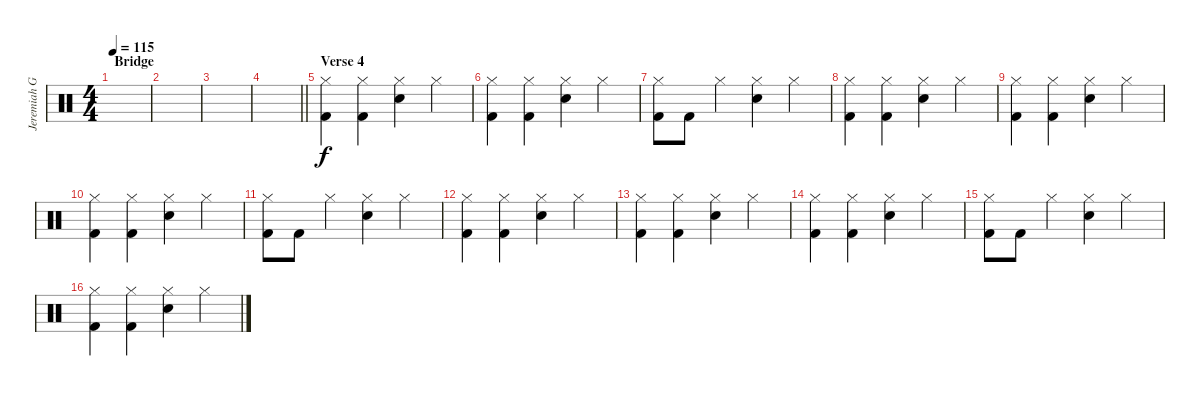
\track ("Jeremiah Green" "Jeremiah G") {instrument percussion}
\staff {score}
\articulation defaults
\ts (4 4)
\section ("" "Bridge")
\tempo 115
\clef neutral
\ks c
|
|
|
\barLineRight lightlight
|
\section ("" "Verse 4")
("Hi-Hat (closed)" "Kick (hit) 2").4{dy f} ("Hi-Hat (closed)" "Kick (hit) 2").4 ("Hi-Hat (closed)" "Electric Snare (hit)").4 "Hi-Hat (closed)".4 |
("Hi-Hat (closed)" "Kick (hit) 2").4 ("Hi-Hat (closed)" "Kick (hit) 2").4 ("Hi-Hat (closed)" "Electric Snare (hit)").4 "Hi-Hat (closed)".4 |
("Hi-Hat (closed)" "Kick (hit) 2").8 "Kick (hit) 2".8 "Hi-Hat (closed)".4 ("Hi-Hat (closed)" "Electric Snare (hit)").4 "Hi-Hat (closed)".4 |
("Hi-Hat (closed)" "Kick (hit) 2").4 ("Hi-Hat (closed)" "Kick (hit) 2").4 ("Hi-Hat (closed)" "Electric Snare (hit)").4 "Hi-Hat (closed)".4 |
("Hi-Hat (closed)" "Kick (hit) 2").4 ("Hi-Hat (closed)" "Kick (hit) 2").4 ("Hi-Hat (closed)" "Electric Snare (hit)").4 "Hi-Hat (closed)".4 |
("Hi-Hat (closed)" "Kick (hit) 2").4 ("Hi-Hat (closed)" "Kick (hit) 2").4 ("Hi-Hat (closed)" "Electric Snare (hit)").4 "Hi-Hat (closed)".4 |
("Hi-Hat (closed)" "Kick (hit) 2").8 "Kick (hit) 2".8 "Hi-Hat (closed)".4 ("Hi-Hat (closed)" "Electric Snare (hit)").4 "Hi-Hat (closed)".4 |
("Hi-Hat (closed)" "Kick (hit) 2").4 ("Hi-Hat (closed)" "Kick (hit) 2").4 ("Hi-Hat (closed)" "Electric Snare (hit)").4 "Hi-Hat (closed)".4 |
("Hi-Hat (closed)" "Kick (hit) 2").4 ("Hi-Hat (closed)" "Kick (hit) 2").4 ("Hi-Hat (closed)" "Electric Snare (hit)").4 "Hi-Hat (closed)".4 |
("Hi-Hat (closed)" "Kick (hit) 2").4 ("Hi-Hat (closed)" "Kick (hit) 2").4 ("Hi-Hat (closed)" "Electric Snare (hit)").4 "Hi-Hat (closed)".4 |
("Hi-Hat (closed)" "Kick (hit) 2").8 "Kick (hit) 2".8 "Hi-Hat (closed)".4 ("Hi-Hat (closed)" "Electric Snare (hit)").4 "Hi-Hat (closed)".4 |
("Hi-Hat (closed)" "Kick (hit) 2").4 ("Hi-Hat (closed)" "Kick (hit) 2").4 ("Hi-Hat (closed)" "Electric Snare (hit)").4 "Hi-Hat (closed)".4
